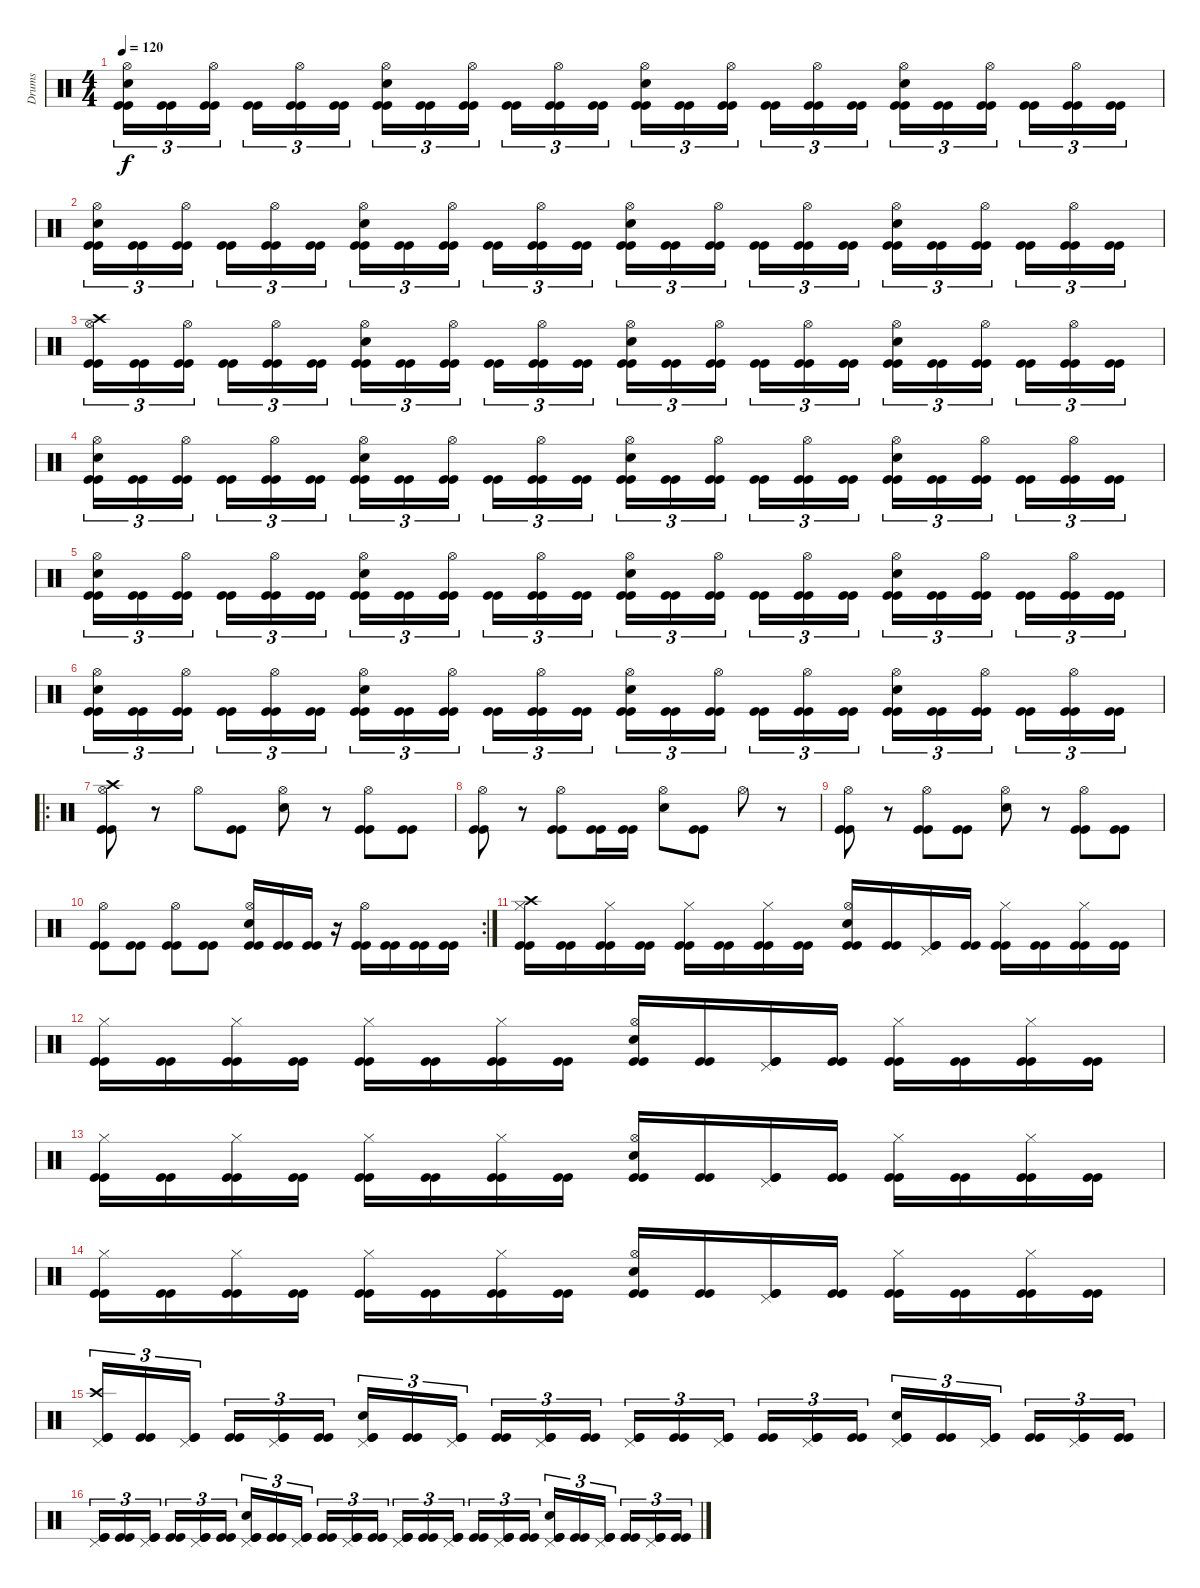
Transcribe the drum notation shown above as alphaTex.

\track ("Drums" "Drums") {instrument percussion}
\staff {score}
\articulation defaults
\ts (4 4)
\tempo 120
\clef neutral
\ks c
("Snare (hit) 2" "Hi-Hat (open)" "Kick (hit)" "Kick (hit)").16{tu (3 2) dy f} ("Kick (hit)" "Kick (hit)").16{tu (3 2)} ("Hi-Hat (open)" "Kick (hit)" "Kick (hit)").16{tu (3 2)} ("Kick (hit)" "Kick (hit)").16{tu (3 2)} ("Hi-Hat (open)" "Kick (hit)" "Kick (hit)").16{tu (3 2)} ("Kick (hit)" "Kick (hit)").16{tu (3 2)} ("Snare (hit) 2" "Hi-Hat (open)" "Kick (hit)" "Kick (hit)").16{tu (3 2)} ("Kick (hit)" "Kick (hit)").16{tu (3 2)} ("Hi-Hat (open)" "Kick (hit)" "Kick (hit)").16{tu (3 2)} ("Kick (hit)" "Kick (hit)").16{tu (3 2)} ("Hi-Hat (open)" "Kick (hit)" "Kick (hit)").16{tu (3 2)} ("Kick (hit)" "Kick (hit)").16{tu (3 2)} ("Snare (hit) 2" "Hi-Hat (open)" "Kick (hit)" "Kick (hit)").16{tu (3 2)} ("Kick (hit)" "Kick (hit)").16{tu (3 2)} ("Hi-Hat (open)" "Kick (hit)" "Kick (hit)").16{tu (3 2)} ("Kick (hit)" "Kick (hit)").16{tu (3 2)} ("Hi-Hat (open)" "Kick (hit)" "Kick (hit)").16{tu (3 2)} ("Kick (hit)" "Kick (hit)").16{tu (3 2)} ("Snare (hit) 2" "Hi-Hat (open)" "Kick (hit)" "Kick (hit)").16{tu (3 2)} ("Kick (hit)" "Kick (hit)").16{tu (3 2)} ("Hi-Hat (open)" "Kick (hit)" "Kick (hit)").16{tu (3 2)} ("Kick (hit)" "Kick (hit)").16{tu (3 2)} ("Hi-Hat (open)" "Kick (hit)" "Kick (hit)").16{tu (3 2)} ("Kick (hit)" "Kick (hit)").16{tu (3 2)} |
("Snare (hit) 2" "Hi-Hat (open)" "Kick (hit)" "Kick (hit)").16{tu (3 2)} ("Kick (hit)" "Kick (hit)").16{tu (3 2)} ("Hi-Hat (open)" "Kick (hit)" "Kick (hit)").16{tu (3 2)} ("Kick (hit)" "Kick (hit)").16{tu (3 2)} ("Hi-Hat (open)" "Kick (hit)" "Kick (hit)").16{tu (3 2)} ("Kick (hit)" "Kick (hit)").16{tu (3 2)} ("Snare (hit) 2" "Hi-Hat (open)" "Kick (hit)" "Kick (hit)").16{tu (3 2)} ("Kick (hit)" "Kick (hit)").16{tu (3 2)} ("Hi-Hat (open)" "Kick (hit)" "Kick (hit)").16{tu (3 2)} ("Kick (hit)" "Kick (hit)").16{tu (3 2)} ("Hi-Hat (open)" "Kick (hit)" "Kick (hit)").16{tu (3 2)} ("Kick (hit)" "Kick (hit)").16{tu (3 2)} ("Snare (hit) 2" "Hi-Hat (open)" "Kick (hit)" "Kick (hit)").16{tu (3 2)} ("Kick (hit)" "Kick (hit)").16{tu (3 2)} ("Hi-Hat (open)" "Kick (hit)" "Kick (hit)").16{tu (3 2)} ("Kick (hit)" "Kick (hit)").16{tu (3 2)} ("Hi-Hat (open)" "Kick (hit)" "Kick (hit)").16{tu (3 2)} ("Kick (hit)" "Kick (hit)").16{tu (3 2)} ("Snare (hit) 2" "Hi-Hat (open)" "Kick (hit)" "Kick (hit)").16{tu (3 2)} ("Kick (hit)" "Kick (hit)").16{tu (3 2)} ("Hi-Hat (open)" "Kick (hit)" "Kick (hit)").16{tu (3 2)} ("Kick (hit)" "Kick (hit)").16{tu (3 2)} ("Hi-Hat (open)" "Kick (hit)" "Kick (hit)").16{tu (3 2)} ("Kick (hit)" "Kick (hit)").16{tu (3 2)} |
("Crash high (hit)" "Hi-Hat (open)" "Kick (hit)" "Kick (hit)").16{tu (3 2)} ("Kick (hit)" "Kick (hit)").16{tu (3 2)} ("Hi-Hat (open)" "Kick (hit)" "Kick (hit)").16{tu (3 2)} ("Kick (hit)" "Kick (hit)").16{tu (3 2)} ("Hi-Hat (open)" "Kick (hit)" "Kick (hit)").16{tu (3 2)} ("Kick (hit)" "Kick (hit)").16{tu (3 2)} ("Snare (hit) 2" "Hi-Hat (open)" "Kick (hit)" "Kick (hit)").16{tu (3 2)} ("Kick (hit)" "Kick (hit)").16{tu (3 2)} ("Hi-Hat (open)" "Kick (hit)" "Kick (hit)").16{tu (3 2)} ("Kick (hit)" "Kick (hit)").16{tu (3 2)} ("Hi-Hat (open)" "Kick (hit)" "Kick (hit)").16{tu (3 2)} ("Kick (hit)" "Kick (hit)").16{tu (3 2)} ("Snare (hit) 2" "Hi-Hat (open)" "Kick (hit)" "Kick (hit)").16{tu (3 2)} ("Kick (hit)" "Kick (hit)").16{tu (3 2)} ("Hi-Hat (open)" "Kick (hit)" "Kick (hit)").16{tu (3 2)} ("Kick (hit)" "Kick (hit)").16{tu (3 2)} ("Hi-Hat (open)" "Kick (hit)" "Kick (hit)").16{tu (3 2)} ("Kick (hit)" "Kick (hit)").16{tu (3 2)} ("Snare (hit) 2" "Hi-Hat (open)" "Kick (hit)" "Kick (hit)").16{tu (3 2)} ("Kick (hit)" "Kick (hit)").16{tu (3 2)} ("Hi-Hat (open)" "Kick (hit)" "Kick (hit)").16{tu (3 2)} ("Kick (hit)" "Kick (hit)").16{tu (3 2)} ("Hi-Hat (open)" "Kick (hit)" "Kick (hit)").16{tu (3 2)} ("Kick (hit)" "Kick (hit)").16{tu (3 2)} |
("Snare (hit) 2" "Hi-Hat (open)" "Kick (hit)" "Kick (hit)").16{tu (3 2)} ("Kick (hit)" "Kick (hit)").16{tu (3 2)} ("Hi-Hat (open)" "Kick (hit)" "Kick (hit)").16{tu (3 2)} ("Kick (hit)" "Kick (hit)").16{tu (3 2)} ("Hi-Hat (open)" "Kick (hit)" "Kick (hit)").16{tu (3 2)} ("Kick (hit)" "Kick (hit)").16{tu (3 2)} ("Snare (hit) 2" "Hi-Hat (open)" "Kick (hit)" "Kick (hit)").16{tu (3 2)} ("Kick (hit)" "Kick (hit)").16{tu (3 2)} ("Hi-Hat (open)" "Kick (hit)" "Kick (hit)").16{tu (3 2)} ("Kick (hit)" "Kick (hit)").16{tu (3 2)} ("Hi-Hat (open)" "Kick (hit)" "Kick (hit)").16{tu (3 2)} ("Kick (hit)" "Kick (hit)").16{tu (3 2)} ("Snare (hit) 2" "Hi-Hat (open)" "Kick (hit)" "Kick (hit)").16{tu (3 2)} ("Kick (hit)" "Kick (hit)").16{tu (3 2)} ("Hi-Hat (open)" "Kick (hit)" "Kick (hit)").16{tu (3 2)} ("Kick (hit)" "Kick (hit)").16{tu (3 2)} ("Hi-Hat (open)" "Kick (hit)" "Kick (hit)").16{tu (3 2)} ("Kick (hit)" "Kick (hit)").16{tu (3 2)} ("Snare (hit) 2" "Hi-Hat (open)" "Kick (hit)" "Kick (hit)").16{tu (3 2)} ("Kick (hit)" "Kick (hit)").16{tu (3 2)} ("Hi-Hat (open)" "Kick (hit)" "Kick (hit)").16{tu (3 2)} ("Kick (hit)" "Kick (hit)").16{tu (3 2)} ("Hi-Hat (open)" "Kick (hit)" "Kick (hit)").16{tu (3 2)} ("Kick (hit)" "Kick (hit)").16{tu (3 2)} |
("Snare (hit) 2" "Hi-Hat (open)" "Kick (hit)" "Kick (hit)").16{tu (3 2)} ("Kick (hit)" "Kick (hit)").16{tu (3 2)} ("Hi-Hat (open)" "Kick (hit)" "Kick (hit)").16{tu (3 2)} ("Kick (hit)" "Kick (hit)").16{tu (3 2)} ("Hi-Hat (open)" "Kick (hit)" "Kick (hit)").16{tu (3 2)} ("Kick (hit)" "Kick (hit)").16{tu (3 2)} ("Snare (hit) 2" "Hi-Hat (open)" "Kick (hit)" "Kick (hit)").16{tu (3 2)} ("Kick (hit)" "Kick (hit)").16{tu (3 2)} ("Hi-Hat (open)" "Kick (hit)" "Kick (hit)").16{tu (3 2)} ("Kick (hit)" "Kick (hit)").16{tu (3 2)} ("Hi-Hat (open)" "Kick (hit)" "Kick (hit)").16{tu (3 2)} ("Kick (hit)" "Kick (hit)").16{tu (3 2)} ("Snare (hit) 2" "Hi-Hat (open)" "Kick (hit)" "Kick (hit)").16{tu (3 2)} ("Kick (hit)" "Kick (hit)").16{tu (3 2)} ("Hi-Hat (open)" "Kick (hit)" "Kick (hit)").16{tu (3 2)} ("Kick (hit)" "Kick (hit)").16{tu (3 2)} ("Hi-Hat (open)" "Kick (hit)" "Kick (hit)").16{tu (3 2)} ("Kick (hit)" "Kick (hit)").16{tu (3 2)} ("Snare (hit) 2" "Hi-Hat (open)" "Kick (hit)" "Kick (hit)").16{tu (3 2)} ("Kick (hit)" "Kick (hit)").16{tu (3 2)} ("Hi-Hat (open)" "Kick (hit)" "Kick (hit)").16{tu (3 2)} ("Kick (hit)" "Kick (hit)").16{tu (3 2)} ("Hi-Hat (open)" "Kick (hit)" "Kick (hit)").16{tu (3 2)} ("Kick (hit)" "Kick (hit)").16{tu (3 2)} |
("Snare (hit) 2" "Hi-Hat (open)" "Kick (hit)" "Kick (hit)").16{tu (3 2)} ("Kick (hit)" "Kick (hit)").16{tu (3 2)} ("Hi-Hat (open)" "Kick (hit)" "Kick (hit)").16{tu (3 2)} ("Kick (hit)" "Kick (hit)").16{tu (3 2)} ("Hi-Hat (open)" "Kick (hit)" "Kick (hit)").16{tu (3 2)} ("Kick (hit)" "Kick (hit)").16{tu (3 2)} ("Snare (hit) 2" "Hi-Hat (open)" "Kick (hit)" "Kick (hit)").16{tu (3 2)} ("Kick (hit)" "Kick (hit)").16{tu (3 2)} ("Hi-Hat (open)" "Kick (hit)" "Kick (hit)").16{tu (3 2)} ("Kick (hit)" "Kick (hit)").16{tu (3 2)} ("Hi-Hat (open)" "Kick (hit)" "Kick (hit)").16{tu (3 2)} ("Kick (hit)" "Kick (hit)").16{tu (3 2)} ("Snare (hit) 2" "Hi-Hat (open)" "Kick (hit)" "Kick (hit)").16{tu (3 2)} ("Kick (hit)" "Kick (hit)").16{tu (3 2)} ("Hi-Hat (open)" "Kick (hit)" "Kick (hit)").16{tu (3 2)} ("Kick (hit)" "Kick (hit)").16{tu (3 2)} ("Hi-Hat (open)" "Kick (hit)" "Kick (hit)").16{tu (3 2)} ("Kick (hit)" "Kick (hit)").16{tu (3 2)} ("Snare (hit) 2" "Hi-Hat (open)" "Kick (hit)" "Kick (hit)").16{tu (3 2)} ("Kick (hit)" "Kick (hit)").16{tu (3 2)} ("Hi-Hat (open)" "Kick (hit)" "Kick (hit)").16{tu (3 2)} ("Kick (hit)" "Kick (hit)").16{tu (3 2)} ("Hi-Hat (open)" "Kick (hit)" "Kick (hit)").16{tu (3 2)} ("Kick (hit)" "Kick (hit)").16{tu (3 2)} |
\ro
("Crash high (hit)" "Hi-Hat (open)" "Kick (hit)" "Kick (hit)").8 r.8 "Hi-Hat (open)".8 ("Kick (hit)" "Kick (hit)").8 ("Snare (hit) 2" "Hi-Hat (open)").8 r.8 ("Hi-Hat (open)" "Kick (hit)" "Kick (hit)").8 ("Kick (hit)" "Kick (hit)").8 |
("Hi-Hat (open)" "Kick (hit)" "Kick (hit)").8 r.8 ("Hi-Hat (open)" "Kick (hit)" "Kick (hit)").8 ("Kick (hit)" "Kick (hit)").16 ("Kick (hit)" "Kick (hit)").16 ("Snare (hit) 2" "Hi-Hat (open)").8 ("Kick (hit)" "Kick (hit)").8 "Hi-Hat (open)".8 r.8 |
("Hi-Hat (open)" "Kick (hit)" "Kick (hit)").8 r.8 ("Hi-Hat (open)" "Kick (hit)" "Kick (hit)").8 ("Kick (hit)" "Kick (hit)").8 ("Snare (hit) 2" "Hi-Hat (open)").8 r.8 ("Hi-Hat (open)" "Kick (hit)" "Kick (hit)").8 ("Kick (hit)" "Kick (hit)").8 |
\rc 2
("Hi-Hat (open)" "Kick (hit)" "Kick (hit)").8 ("Kick (hit)" "Kick (hit)").8 ("Hi-Hat (open)" "Kick (hit)" "Kick (hit)").8 ("Kick (hit)" "Kick (hit)").8 ("Snare (hit) 2" "Hi-Hat (open)" "Kick (hit)" "Kick (hit)").16 ("Kick (hit)" "Kick (hit)").16 ("Kick (hit)" "Kick (hit)").16 r.16 ("Hi-Hat (open)" "Kick (hit)" "Kick (hit)").16 ("Kick (hit)" "Kick (hit)").16 ("Kick (hit)" "Kick (hit)").16 ("Kick (hit)" "Kick (hit)").16 |
("Crash high (hit)" "Hi-Hat (closed)" "Kick (hit)" "Kick (hit)").16 ("Kick (hit)" "Kick (hit)").16 ("Hi-Hat (closed)" "Kick (hit)" "Kick (hit)").16 ("Kick (hit)" "Kick (hit)").16 ("Hi-Hat (closed)" "Kick (hit)" "Kick (hit)").16 ("Kick (hit)" "Kick (hit)").16 ("Hi-Hat (closed)" "Kick (hit)" "Kick (hit)").16 ("Kick (hit)" "Kick (hit)").16 ("Snare (hit) 2" "Hi-Hat (open)" "Kick (hit)" "Kick (hit)").16 ("Kick (hit)" "Kick (hit)").16 ("Pedal Hi-Hat (hit)" "Kick (hit)" "Kick (hit)").16 ("Kick (hit)" "Kick (hit)").16 ("Hi-Hat (closed)" "Kick (hit)" "Kick (hit)").16 ("Kick (hit)" "Kick (hit)").16 ("Hi-Hat (closed)" "Kick (hit)" "Kick (hit)").16 ("Kick (hit)" "Kick (hit)").16 |
("Hi-Hat (closed)" "Kick (hit)" "Kick (hit)").16 ("Kick (hit)" "Kick (hit)").16 ("Hi-Hat (closed)" "Kick (hit)" "Kick (hit)").16 ("Kick (hit)" "Kick (hit)").16 ("Hi-Hat (closed)" "Kick (hit)" "Kick (hit)").16 ("Kick (hit)" "Kick (hit)").16 ("Hi-Hat (closed)" "Kick (hit)" "Kick (hit)").16 ("Kick (hit)" "Kick (hit)").16 ("Snare (hit) 2" "Hi-Hat (open)" "Kick (hit)" "Kick (hit)").16 ("Kick (hit)" "Kick (hit)").16 ("Pedal Hi-Hat (hit)" "Kick (hit)" "Kick (hit)").16 ("Kick (hit)" "Kick (hit)").16 ("Hi-Hat (closed)" "Kick (hit)" "Kick (hit)").16 ("Kick (hit)" "Kick (hit)").16 ("Hi-Hat (closed)" "Kick (hit)" "Kick (hit)").16 ("Kick (hit)" "Kick (hit)").16 |
("Hi-Hat (closed)" "Kick (hit)" "Kick (hit)").16 ("Kick (hit)" "Kick (hit)").16 ("Hi-Hat (closed)" "Kick (hit)" "Kick (hit)").16 ("Kick (hit)" "Kick (hit)").16 ("Hi-Hat (closed)" "Kick (hit)" "Kick (hit)").16 ("Kick (hit)" "Kick (hit)").16 ("Hi-Hat (closed)" "Kick (hit)" "Kick (hit)").16 ("Kick (hit)" "Kick (hit)").16 ("Snare (hit) 2" "Hi-Hat (open)" "Kick (hit)" "Kick (hit)").16 ("Kick (hit)" "Kick (hit)").16 ("Pedal Hi-Hat (hit)" "Kick (hit)" "Kick (hit)").16 ("Kick (hit)" "Kick (hit)").16 ("Hi-Hat (closed)" "Kick (hit)" "Kick (hit)").16 ("Kick (hit)" "Kick (hit)").16 ("Hi-Hat (closed)" "Kick (hit)" "Kick (hit)").16 ("Kick (hit)" "Kick (hit)").16 |
("Hi-Hat (closed)" "Kick (hit)" "Kick (hit)").16 ("Kick (hit)" "Kick (hit)").16 ("Hi-Hat (closed)" "Kick (hit)" "Kick (hit)").16 ("Kick (hit)" "Kick (hit)").16 ("Hi-Hat (closed)" "Kick (hit)" "Kick (hit)").16 ("Kick (hit)" "Kick (hit)").16 ("Hi-Hat (closed)" "Kick (hit)" "Kick (hit)").16 ("Kick (hit)" "Kick (hit)").16 ("Snare (hit) 2" "Hi-Hat (open)" "Kick (hit)" "Kick (hit)").16 ("Kick (hit)" "Kick (hit)").16 ("Pedal Hi-Hat (hit)" "Kick (hit)" "Kick (hit)").16 ("Kick (hit)" "Kick (hit)").16 ("Hi-Hat (closed)" "Kick (hit)" "Kick (hit)").16 ("Kick (hit)" "Kick (hit)").16 ("Hi-Hat (closed)" "Kick (hit)" "Kick (hit)").16 ("Kick (hit)" "Kick (hit)").16 |
("Crash high (hit)" "Pedal Hi-Hat (hit)" "Kick (hit)" "Kick (hit)").16{tu (3 2)} ("Kick (hit)" "Kick (hit)").16{tu (3 2)} ("Pedal Hi-Hat (hit)" "Kick (hit)" "Kick (hit)").16{tu (3 2)} ("Kick (hit)" "Kick (hit)").16{tu (3 2)} ("Pedal Hi-Hat (hit)" "Kick (hit)" "Kick (hit)").16{tu (3 2)} ("Kick (hit)" "Kick (hit)").16{tu (3 2)} ("Snare (hit) 2" "Pedal Hi-Hat (hit)" "Kick (hit)" "Kick (hit)").16{tu (3 2)} ("Kick (hit)" "Kick (hit)").16{tu (3 2)} ("Pedal Hi-Hat (hit)" "Kick (hit)" "Kick (hit)").16{tu (3 2)} ("Kick (hit)" "Kick (hit)").16{tu (3 2)} ("Pedal Hi-Hat (hit)" "Kick (hit)" "Kick (hit)").16{tu (3 2)} ("Kick (hit)" "Kick (hit)").16{tu (3 2)} ("Pedal Hi-Hat (hit)" "Kick (hit)" "Kick (hit)").16{tu (3 2)} ("Kick (hit)" "Kick (hit)").16{tu (3 2)} ("Pedal Hi-Hat (hit)" "Kick (hit)" "Kick (hit)").16{tu (3 2)} ("Kick (hit)" "Kick (hit)").16{tu (3 2)} ("Pedal Hi-Hat (hit)" "Kick (hit)" "Kick (hit)").16{tu (3 2)} ("Kick (hit)" "Kick (hit)").16{tu (3 2)} ("Snare (hit) 2" "Pedal Hi-Hat (hit)" "Kick (hit)" "Kick (hit)").16{tu (3 2)} ("Kick (hit)" "Kick (hit)").16{tu (3 2)} ("Pedal Hi-Hat (hit)" "Kick (hit)" "Kick (hit)").16{tu (3 2)} ("Kick (hit)" "Kick (hit)").16{tu (3 2)} ("Pedal Hi-Hat (hit)" "Kick (hit)" "Kick (hit)").16{tu (3 2)} ("Kick (hit)" "Kick (hit)").16{tu (3 2)} |
("Pedal Hi-Hat (hit)" "Kick (hit)" "Kick (hit)").16{tu (3 2)} ("Kick (hit)" "Kick (hit)").16{tu (3 2)} ("Pedal Hi-Hat (hit)" "Kick (hit)" "Kick (hit)").16{tu (3 2)} ("Kick (hit)" "Kick (hit)").16{tu (3 2)} ("Pedal Hi-Hat (hit)" "Kick (hit)" "Kick (hit)").16{tu (3 2)} ("Kick (hit)" "Kick (hit)").16{tu (3 2)} ("Snare (hit) 2" "Pedal Hi-Hat (hit)" "Kick (hit)" "Kick (hit)").16{tu (3 2)} ("Kick (hit)" "Kick (hit)").16{tu (3 2)} ("Pedal Hi-Hat (hit)" "Kick (hit)" "Kick (hit)").16{tu (3 2)} ("Kick (hit)" "Kick (hit)").16{tu (3 2)} ("Pedal Hi-Hat (hit)" "Kick (hit)" "Kick (hit)").16{tu (3 2)} ("Kick (hit)" "Kick (hit)").16{tu (3 2)} ("Pedal Hi-Hat (hit)" "Kick (hit)" "Kick (hit)").16{tu (3 2)} ("Kick (hit)" "Kick (hit)").16{tu (3 2)} ("Pedal Hi-Hat (hit)" "Kick (hit)" "Kick (hit)").16{tu (3 2)} ("Kick (hit)" "Kick (hit)").16{tu (3 2)} ("Pedal Hi-Hat (hit)" "Kick (hit)" "Kick (hit)").16{tu (3 2)} ("Kick (hit)" "Kick (hit)").16{tu (3 2)} ("Snare (hit) 2" "Pedal Hi-Hat (hit)" "Kick (hit)" "Kick (hit)").16{tu (3 2)} ("Kick (hit)" "Kick (hit)").16{tu (3 2)} ("Pedal Hi-Hat (hit)" "Kick (hit)" "Kick (hit)").16{tu (3 2)} ("Kick (hit)" "Kick (hit)").16{tu (3 2)} ("Pedal Hi-Hat (hit)" "Kick (hit)" "Kick (hit)").16{tu (3 2)} ("Kick (hit)" "Kick (hit)").16{tu (3 2)}
